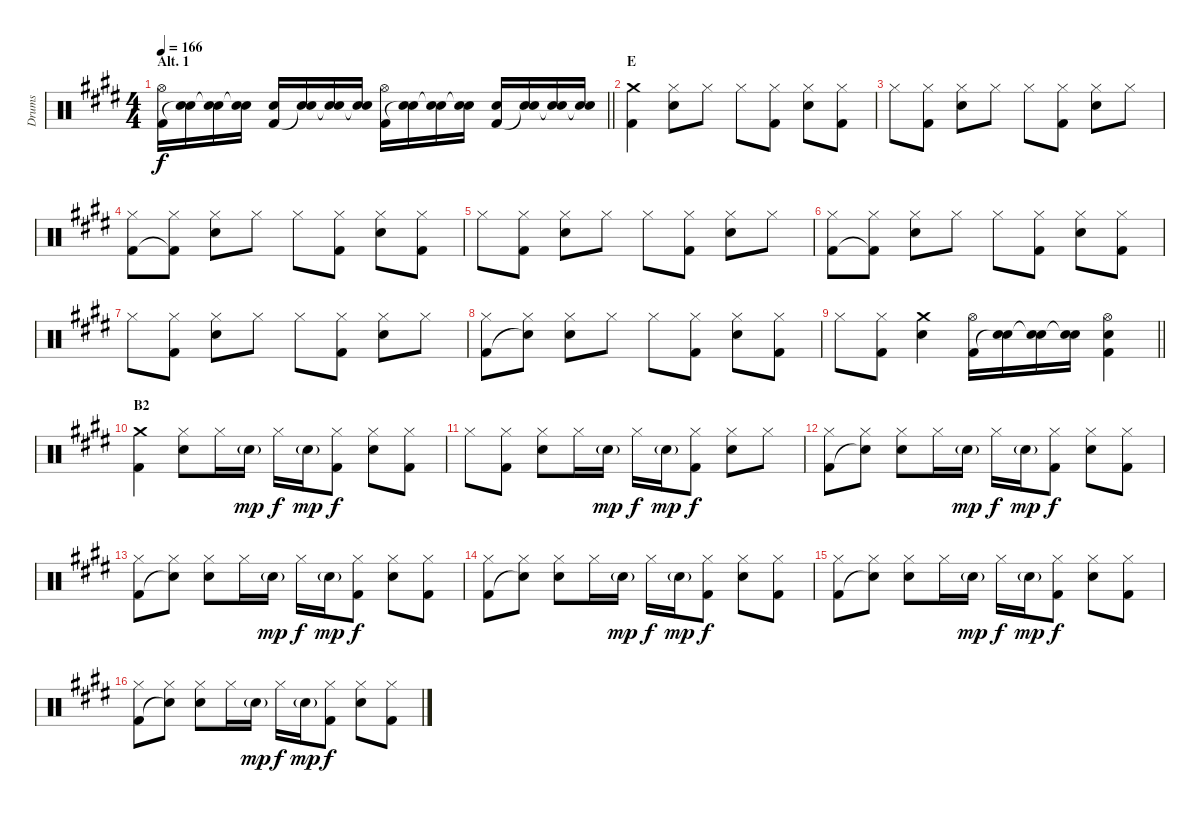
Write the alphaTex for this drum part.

\track ("Drums" "Drums") {instrument percussion}
\staff {score}
\articulation defaults
\ts (4 4)
\section ("" "Alt. 1")
\tempo 166
\clef neutral
\barLineRight lightlight
\ks e
("Hi-Hat (open)" "Kick (hit) 2").16{dy f} ("Snare (hit) 2" "Snare (hit)"{t}).16 ("Snare (hit) 2" "Snare (hit)"{t}).16 ("Snare (hit) 2" "Snare (hit)"{t}).16 ("Snare (hit) 2" "Kick (hit) 2").16 ("Snare (hit) 2" "Snare (hit)"{t}).16 ("Snare (hit) 2" "Snare (hit)"{t}).16 ("Snare (hit) 2" "Snare (hit)"{t}).16 ("Hi-Hat (open)" "Kick (hit) 2").16 ("Snare (hit) 2" "Snare (hit)"{t}).16 ("Snare (hit) 2" "Snare (hit)"{t}).16 ("Snare (hit) 2" "Snare (hit)"{t}).16 ("Snare (hit) 2" "Kick (hit) 2").16 ("Snare (hit) 2" "Snare (hit)"{t}).16 ("Snare (hit) 2" "Snare (hit)"{t}).16 ("Snare (hit) 2" "Snare (hit)"{t}).16 |
\section ("" "E")
("Crash medium (hit)" "Kick (hit) 2").4 ("Hi-Hat (closed)" "Snare (hit) 2").8 "Hi-Hat (closed)".8 "Hi-Hat (closed)".8 ("Hi-Hat (closed)" "Kick (hit) 2").8 ("Hi-Hat (closed)" "Snare (hit) 2").8 ("Hi-Hat (closed)" "Kick (hit) 2").8 |
"Hi-Hat (closed)".8 ("Hi-Hat (closed)" "Kick (hit) 2").8 ("Hi-Hat (closed)" "Snare (hit) 2").8 "Hi-Hat (closed)".8 "Hi-Hat (closed)".8 ("Hi-Hat (closed)" "Kick (hit) 2").8 ("Hi-Hat (closed)" "Snare (hit) 2").8 "Hi-Hat (closed)".8 |
("Hi-Hat (closed)" "Kick (hit) 2").8 ("Hi-Hat (closed)" "Kick (hit) 2"{t}).8 ("Hi-Hat (closed)" "Snare (hit) 2").8 "Hi-Hat (closed)".8 "Hi-Hat (closed)".8 ("Hi-Hat (closed)" "Kick (hit) 2").8 ("Hi-Hat (closed)" "Snare (hit) 2").8 ("Hi-Hat (closed)" "Kick (hit) 2").8 |
"Hi-Hat (closed)".8 ("Hi-Hat (closed)" "Kick (hit) 2").8 ("Hi-Hat (closed)" "Snare (hit) 2").8 "Hi-Hat (closed)".8 "Hi-Hat (closed)".8 ("Hi-Hat (closed)" "Kick (hit) 2").8 ("Hi-Hat (closed)" "Snare (hit) 2").8 "Hi-Hat (closed)".8 |
("Hi-Hat (closed)" "Kick (hit) 2").8 ("Hi-Hat (closed)" "Kick (hit) 2"{t}).8 ("Hi-Hat (closed)" "Snare (hit) 2").8 "Hi-Hat (closed)".8 "Hi-Hat (closed)".8 ("Hi-Hat (closed)" "Kick (hit) 2").8 ("Hi-Hat (closed)" "Snare (hit) 2").8 ("Hi-Hat (closed)" "Kick (hit) 2").8 |
"Hi-Hat (closed)".8 ("Hi-Hat (closed)" "Kick (hit) 2").8 ("Hi-Hat (closed)" "Snare (hit) 2").8 "Hi-Hat (closed)".8 "Hi-Hat (closed)".8 ("Hi-Hat (closed)" "Kick (hit) 2").8 ("Hi-Hat (closed)" "Snare (hit) 2").8 "Hi-Hat (closed)".8 |
("Hi-Hat (closed)" "Kick (hit) 2").8 ("Hi-Hat (closed)" "Snare (hit)"{t}).8 ("Hi-Hat (closed)" "Snare (hit) 2").8 "Hi-Hat (closed)".8 "Hi-Hat (closed)".8 ("Hi-Hat (closed)" "Kick (hit) 2").8 ("Hi-Hat (closed)" "Snare (hit) 2").8 ("Hi-Hat (closed)" "Kick (hit) 2").8 |
\barLineRight lightlight "Hi-Hat (closed)".8
("Hi-Hat (closed)" "Kick (hit) 2").8 ("Crash medium (hit)" "Snare (hit) 2").4 ("Hi-Hat (open)" "Kick (hit) 2").16 ("Snare (hit) 2" "Snare (hit)"{t}).16 ("Snare (hit) 2" "Snare (hit)"{t}).16 ("Snare (hit) 2" "Snare (hit)"{t}).16 ("Hi-Hat (open)" "Snare (hit) 2" "Kick (hit) 2").4 |
\section ("" "B2")
("Crash medium (hit)" "Kick (hit) 2").4 ("Hi-Hat (closed)" "Snare (hit) 2").8 "Hi-Hat (closed)".16 "Snare (hit) 2"{g}.16{dy mp} "Hi-Hat (closed)".16{dy f} "Snare (hit) 2"{g}.16{dy mp} ("Hi-Hat (closed)" "Kick (hit) 2").8{dy f} ("Hi-Hat (closed)" "Snare (hit) 2").8 ("Hi-Hat (closed)" "Kick (hit) 2").8 |
"Hi-Hat (closed)".8 ("Hi-Hat (closed)" "Kick (hit) 2").8 ("Hi-Hat (closed)" "Snare (hit) 2").8 "Hi-Hat (closed)".16 "Snare (hit) 2"{g}.16{dy mp} "Hi-Hat (closed)".16{dy f} "Snare (hit) 2"{g}.16{dy mp} ("Hi-Hat (closed)" "Kick (hit) 2").8{dy f} ("Hi-Hat (closed)" "Snare (hit) 2").8 "Hi-Hat (closed)".8 |
("Hi-Hat (closed)" "Kick (hit) 2").8 ("Hi-Hat (closed)" "Snare (hit)"{t}).8 ("Hi-Hat (closed)" "Snare (hit) 2").8 "Hi-Hat (closed)".16 "Snare (hit) 2"{g}.16{dy mp} "Hi-Hat (closed)".16{dy f} "Snare (hit) 2"{g}.16{dy mp} ("Hi-Hat (closed)" "Kick (hit) 2").8{dy f} ("Hi-Hat (closed)" "Snare (hit) 2").8 ("Hi-Hat (closed)" "Kick (hit) 2").8 |
("Hi-Hat (closed)" "Kick (hit) 2").8 ("Hi-Hat (closed)" "Snare (hit)"{t}).8 ("Hi-Hat (closed)" "Snare (hit) 2").8 "Hi-Hat (closed)".16 "Snare (hit) 2"{g}.16{dy mp} "Hi-Hat (closed)".16{dy f} "Snare (hit) 2"{g}.16{dy mp} ("Hi-Hat (closed)" "Kick (hit) 2").8{dy f} ("Hi-Hat (closed)" "Snare (hit) 2").8 ("Hi-Hat (closed)" "Kick (hit) 2").8 |
("Hi-Hat (closed)" "Kick (hit) 2").8 ("Hi-Hat (closed)" "Snare (hit)"{t}).8 ("Hi-Hat (closed)" "Snare (hit) 2").8 "Hi-Hat (closed)".16 "Snare (hit) 2"{g}.16{dy mp} "Hi-Hat (closed)".16{dy f} "Snare (hit) 2"{g}.16{dy mp} ("Hi-Hat (closed)" "Kick (hit) 2").8{dy f} ("Hi-Hat (closed)" "Snare (hit) 2").8 ("Hi-Hat (closed)" "Kick (hit) 2").8 |
("Hi-Hat (closed)" "Kick (hit) 2").8 ("Hi-Hat (closed)" "Snare (hit)"{t}).8 ("Hi-Hat (closed)" "Snare (hit) 2").8 "Hi-Hat (closed)".16 "Snare (hit) 2"{g}.16{dy mp} "Hi-Hat (closed)".16{dy f} "Snare (hit) 2"{g}.16{dy mp} ("Hi-Hat (closed)" "Kick (hit) 2").8{dy f} ("Hi-Hat (closed)" "Snare (hit) 2").8 ("Hi-Hat (closed)" "Kick (hit) 2").8 |
("Hi-Hat (closed)" "Kick (hit) 2").8 ("Hi-Hat (closed)" "Snare (hit)"{t}).8 ("Hi-Hat (closed)" "Snare (hit) 2").8 "Hi-Hat (closed)".16 "Snare (hit) 2"{g}.16{dy mp} "Hi-Hat (closed)".16{dy f} "Snare (hit) 2"{g}.16{dy mp} ("Hi-Hat (closed)" "Kick (hit) 2").8{dy f} ("Hi-Hat (closed)" "Snare (hit) 2").8 ("Hi-Hat (closed)" "Kick (hit) 2").8
